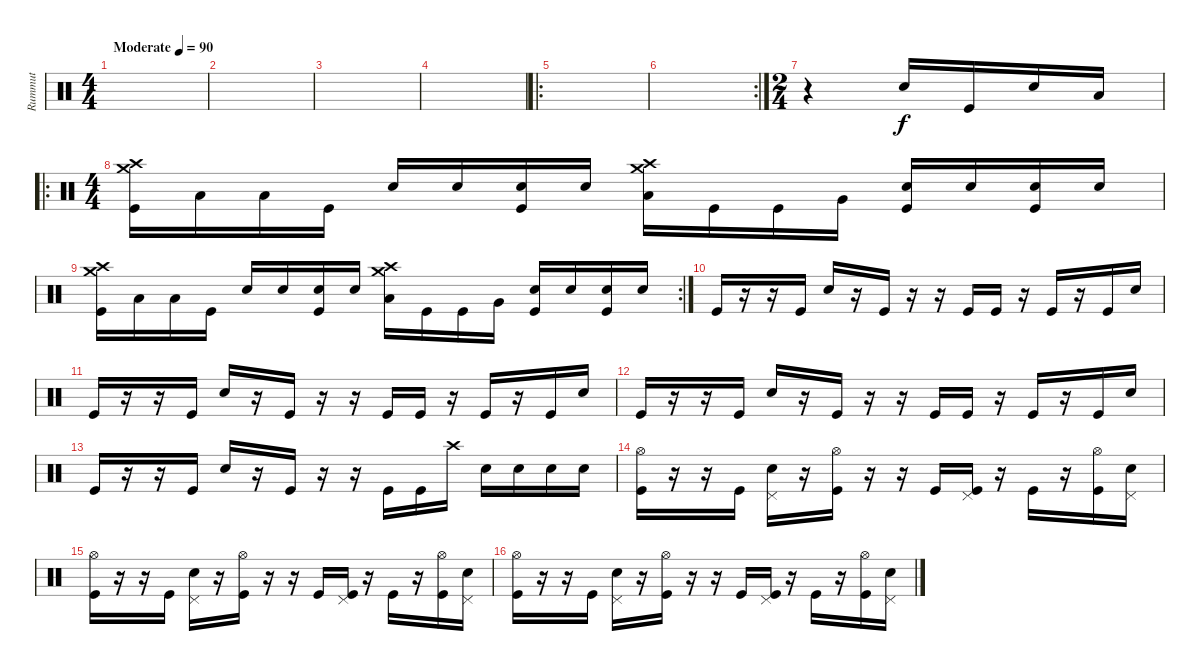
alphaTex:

\track ("Rummut" "Rummut") {instrument percussion}
\staff {score}
\articulation defaults
\ts (4 4)
\tempo (90 "Moderate")
\clef neutral
\ks c
|
|
|
|
\ro
|
\rc 2
|
\ts (2 4)
r.4 "Snare (hit) 2".16 "Kick (hit)".16 "Snare (hit) 2".16 "Low Floor Tom (hit)".16 |
\ro
\ts (4 4)
("Crash medium (hit)" "Crash high (hit)" "Kick (hit)").16 "Low Tom (hit)".16 "Low Floor Tom (hit)".16 "Kick (hit)".16 "Snare (hit) 2".16 "Snare (hit) 2".16 ("Snare (hit) 2" "Kick (hit)").16 "Snare (hit) 2".16 ("Crash medium (hit)" "Crash high (hit)" "Low Floor Tom (hit)").16 "Kick (hit)".16 "Kick (hit)".16 "Very Low Tom (hit)".16 ("Snare (hit) 2" "Kick (hit)").16 "Snare (hit) 2".16 ("Snare (hit) 2" "Kick (hit)").16 "Snare (hit) 2".16 |
\rc 2
("Crash medium (hit)" "Crash high (hit)" "Kick (hit)").16 "Low Tom (hit)".16 "Low Floor Tom (hit)".16 "Kick (hit)".16 "Snare (hit) 2".16 "Snare (hit) 2".16 ("Snare (hit) 2" "Kick (hit)").16 "Snare (hit) 2".16 ("Crash medium (hit)" "Crash high (hit)" "Low Floor Tom (hit)").16 "Kick (hit)".16 "Kick (hit)".16 "Very Low Tom (hit)".16 ("Snare (hit) 2" "Kick (hit)").16 "Snare (hit) 2".16 ("Snare (hit) 2" "Kick (hit)").16 "Snare (hit) 2".16 |
"Kick (hit)".16 r.16 r.16 "Kick (hit)".16 "Snare (hit) 2".16 r.16 "Kick (hit)".16 r.16 r.16 "Kick (hit)".16 "Kick (hit)".16 r.16 "Kick (hit)".16 r.16 "Kick (hit)".16 "Snare (hit) 2".16 |
"Kick (hit)".16 r.16 r.16 "Kick (hit)".16 "Snare (hit) 2".16 r.16 "Kick (hit)".16 r.16 r.16 "Kick (hit)".16 "Kick (hit)".16 r.16 "Kick (hit)".16 r.16 "Kick (hit)".16 "Snare (hit) 2".16 |
"Kick (hit)".16 r.16 r.16 "Kick (hit)".16 "Snare (hit) 2".16 r.16 "Kick (hit)".16 r.16 r.16 "Kick (hit)".16 "Kick (hit)".16 r.16 "Kick (hit)".16 r.16 "Kick (hit)".16 "Snare (hit) 2".16 |
"Kick (hit)".16 r.16 r.16 "Kick (hit)".16 "Snare (hit) 2".16 r.16 "Kick (hit)".16 r.16 r.16 "Kick (hit)".16 "Kick (hit)".16 "Crash high (hit)".16 "Snare (hit) 2".16 "Snare (hit) 2".16 "Snare (hit) 2".16 "Snare (hit) 2".16 |
("Hi-Hat (open)" "Kick (hit)").16 r.16 r.16 "Kick (hit)".16 ("Pedal Hi-Hat (hit)" "Snare (hit) 2").16 r.16 ("Hi-Hat (open)" "Kick (hit)").16 r.16 r.16 "Kick (hit)".16 ("Pedal Hi-Hat (hit)" "Kick (hit)").16 r.16 "Kick (hit)".16 r.16 ("Hi-Hat (open)" "Kick (hit)").16 ("Pedal Hi-Hat (hit)" "Snare (hit) 2").16 |
("Hi-Hat (open)" "Kick (hit)").16 r.16 r.16 "Kick (hit)".16 ("Pedal Hi-Hat (hit)" "Snare (hit) 2").16 r.16 ("Hi-Hat (open)" "Kick (hit)").16 r.16 r.16 "Kick (hit)".16 ("Pedal Hi-Hat (hit)" "Kick (hit)").16 r.16 "Kick (hit)".16 r.16 ("Hi-Hat (open)" "Kick (hit)").16 ("Pedal Hi-Hat (hit)" "Snare (hit) 2").16 |
("Hi-Hat (open)" "Kick (hit)").16 r.16 r.16 "Kick (hit)".16 ("Pedal Hi-Hat (hit)" "Snare (hit) 2").16 r.16 ("Hi-Hat (open)" "Kick (hit)").16 r.16 r.16 "Kick (hit)".16 ("Pedal Hi-Hat (hit)" "Kick (hit)").16 r.16 "Kick (hit)".16 r.16 ("Hi-Hat (open)" "Kick (hit)").16 ("Pedal Hi-Hat (hit)" "Snare (hit) 2").16
